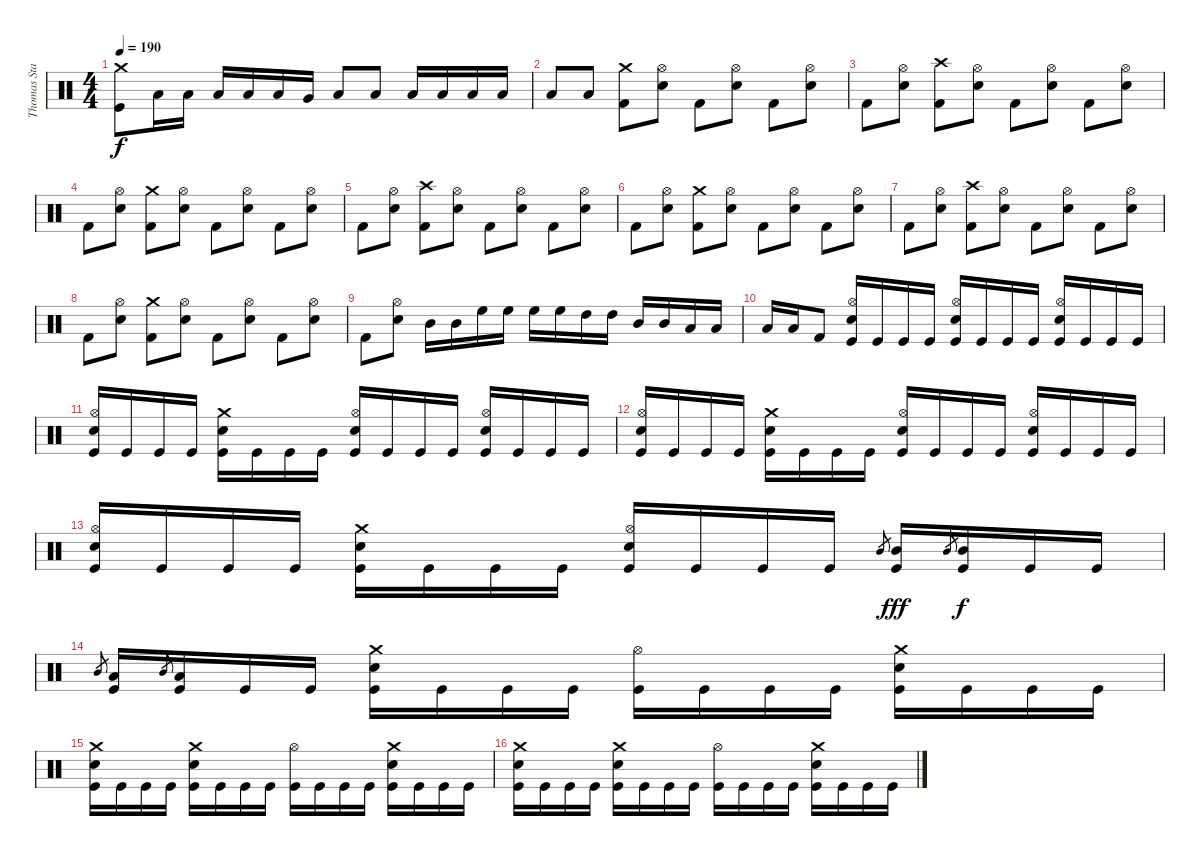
\track ("Thomas Stauch" "Thomas Sta") {instrument percussion}
\staff {score}
\articulation defaults
\ts (4 4)
\tempo 190
\clef neutral
\ks c
("Crash medium (hit)" "Kick (hit)").8{dy f} "Low Tom (hit)".16 "Low Tom (hit)".16 "Low Tom (hit)".16 "Low Tom (hit)".16 "Low Tom (hit)".16 "Very Low Tom (hit)".16 "Low Tom (hit)".8 "Low Tom (hit)".8 "Low Tom (hit)".16 "Low Tom (hit)".16 "Low Tom (hit)".16 "Low Tom (hit)".16 |
"Low Tom (hit)".8 "Low Tom (hit)".8 ("Crash medium (hit)" "Kick (hit) 2").8 ("Hi-Hat (open)" "Electric Snare (hit)").8 "Kick (hit) 2".8 ("Hi-Hat (open)" "Electric Snare (hit)").8 "Kick (hit) 2".8 ("Hi-Hat (open)" "Electric Snare (hit)").8 |
"Kick (hit) 2".8 ("Hi-Hat (open)" "Electric Snare (hit)").8 ("Crash high (hit)" "Kick (hit) 2").8 ("Hi-Hat (open)" "Electric Snare (hit)").8 "Kick (hit) 2".8 ("Hi-Hat (open)" "Electric Snare (hit)").8 "Kick (hit) 2".8 ("Hi-Hat (open)" "Electric Snare (hit)").8 |
"Kick (hit) 2".8 ("Hi-Hat (open)" "Electric Snare (hit)").8 ("Crash medium (hit)" "Kick (hit) 2").8 ("Hi-Hat (open)" "Electric Snare (hit)").8 "Kick (hit) 2".8 ("Hi-Hat (open)" "Electric Snare (hit)").8 "Kick (hit) 2".8 ("Hi-Hat (open)" "Electric Snare (hit)").8 |
"Kick (hit) 2".8 ("Hi-Hat (open)" "Electric Snare (hit)").8 ("Crash high (hit)" "Kick (hit) 2").8 ("Hi-Hat (open)" "Electric Snare (hit)").8 "Kick (hit) 2".8 ("Hi-Hat (open)" "Electric Snare (hit)").8 "Kick (hit) 2".8 ("Hi-Hat (open)" "Electric Snare (hit)").8 |
"Kick (hit) 2".8 ("Hi-Hat (open)" "Electric Snare (hit)").8 ("Crash medium (hit)" "Kick (hit) 2").8 ("Hi-Hat (open)" "Electric Snare (hit)").8 "Kick (hit) 2".8 ("Hi-Hat (open)" "Electric Snare (hit)").8 "Kick (hit) 2".8 ("Hi-Hat (open)" "Electric Snare (hit)").8 |
"Kick (hit) 2".8 ("Hi-Hat (open)" "Electric Snare (hit)").8 ("Crash high (hit)" "Kick (hit) 2").8 ("Hi-Hat (open)" "Electric Snare (hit)").8 "Kick (hit) 2".8 ("Hi-Hat (open)" "Electric Snare (hit)").8 "Kick (hit) 2".8 ("Hi-Hat (open)" "Electric Snare (hit)").8 |
"Kick (hit) 2".8 ("Hi-Hat (open)" "Electric Snare (hit)").8 ("Crash medium (hit)" "Kick (hit) 2").8 ("Hi-Hat (open)" "Electric Snare (hit)").8 "Kick (hit) 2".8 ("Hi-Hat (open)" "Electric Snare (hit)").8 "Kick (hit) 2".8 ("Hi-Hat (open)" "Electric Snare (hit)").8 |
"Kick (hit) 2".8 ("Hi-Hat (open)" "Electric Snare (hit)").8 "Mid Tom (hit)".16 "Mid Tom (hit)".16 "High Floor Tom (hit)".16 "High Floor Tom (hit)".16 "High Floor Tom (hit)".16 "High Floor Tom (hit)".16 "High Tom (hit)".16 "High Tom (hit)".16 "Mid Tom (hit)".16 "Mid Tom (hit)".16 "Low Tom (hit)".16 "Low Tom (hit)".16 |
"Low Tom (hit)".16 "Low Tom (hit)".16 "Kick (hit) 2".8 ("Hi-Hat (open)" "Electric Snare (hit)" "Kick (hit)").16 "Kick (hit)".16 "Kick (hit)".16 "Kick (hit)".16 ("Hi-Hat (open)" "Electric Snare (hit)" "Kick (hit)").16 "Kick (hit)".16 "Kick (hit)".16 "Kick (hit)".16 ("Hi-Hat (open)" "Electric Snare (hit)" "Kick (hit)").16 "Kick (hit)".16 "Kick (hit)".16 "Kick (hit)".16 |
("Hi-Hat (open)" "Electric Snare (hit)" "Kick (hit)").16 "Kick (hit)".16 "Kick (hit)".16 "Kick (hit)".16 ("Crash medium (hit)" "Electric Snare (hit)" "Kick (hit)").16 "Kick (hit)".16 "Kick (hit)".16 "Kick (hit)".16 ("Hi-Hat (open)" "Electric Snare (hit)" "Kick (hit)").16 "Kick (hit)".16 "Kick (hit)".16 "Kick (hit)".16 ("Hi-Hat (open)" "Electric Snare (hit)" "Kick (hit)").16 "Kick (hit)".16 "Kick (hit)".16 "Kick (hit)".16 |
("Hi-Hat (open)" "Electric Snare (hit)" "Kick (hit)").16 "Kick (hit)".16 "Kick (hit)".16 "Kick (hit)".16 ("Crash medium (hit)" "Electric Snare (hit)" "Kick (hit)").16 "Kick (hit)".16 "Kick (hit)".16 "Kick (hit)".16 ("Hi-Hat (open)" "Electric Snare (hit)" "Kick (hit)").16 "Kick (hit)".16 "Kick (hit)".16 "Kick (hit)".16 ("Hi-Hat (open)" "Electric Snare (hit)" "Kick (hit)").16 "Kick (hit)".16 "Kick (hit)".16 "Kick (hit)".16 |
("Hi-Hat (open)" "Electric Snare (hit)" "Kick (hit)").16 "Kick (hit)".16 "Kick (hit)".16 "Kick (hit)".16 ("Crash medium (hit)" "Electric Snare (hit)" "Kick (hit)").16 "Kick (hit)".16 "Kick (hit)".16 "Kick (hit)".16 ("Hi-Hat (open)" "Electric Snare (hit)" "Kick (hit)").16 "Kick (hit)".16 "Kick (hit)".16 "Kick (hit)".16 "Mid Tom (hit)".8{gr} ("Mid Tom (hit)" "Kick (hit)").16{dy fff} "Mid Tom (hit)".8{gr} ("Mid Tom (hit)" "Kick (hit)").16{dy f} "Kick (hit)".16 "Kick (hit)".16 |
"Mid Tom (hit)".8{gr} ("Low Tom (hit)" "Kick (hit)").16 "Mid Tom (hit)".8{gr} ("Low Tom (hit)" "Kick (hit)").16 "Kick (hit)".16 "Kick (hit)".16 ("Crash medium (hit)" "Electric Snare (hit)" "Kick (hit)").16 "Kick (hit)".16 "Kick (hit)".16 "Kick (hit)".16 ("Hi-Hat (open)" "Kick (hit)").16 "Kick (hit)".16 "Kick (hit)".16 "Kick (hit)".16 ("Crash medium (hit)" "Electric Snare (hit)" "Kick (hit)").16 "Kick (hit)".16 "Kick (hit)".16 "Kick (hit)".16 |
("Crash medium (hit)" "Electric Snare (hit)" "Kick (hit)").16 "Kick (hit)".16 "Kick (hit)".16 "Kick (hit)".16 ("Crash medium (hit)" "Electric Snare (hit)" "Kick (hit)").16 "Kick (hit)".16 "Kick (hit)".16 "Kick (hit)".16 ("Hi-Hat (open)" "Kick (hit)").16 "Kick (hit)".16 "Kick (hit)".16 "Kick (hit)".16 ("Crash medium (hit)" "Electric Snare (hit)" "Kick (hit)").16 "Kick (hit)".16 "Kick (hit)".16 "Kick (hit)".16 |
("Crash medium (hit)" "Electric Snare (hit)" "Kick (hit)").16 "Kick (hit)".16 "Kick (hit)".16 "Kick (hit)".16 ("Crash medium (hit)" "Electric Snare (hit)" "Kick (hit)").16 "Kick (hit)".16 "Kick (hit)".16 "Kick (hit)".16 ("Hi-Hat (open)" "Kick (hit)").16 "Kick (hit)".16 "Kick (hit)".16 "Kick (hit)".16 ("Crash medium (hit)" "Electric Snare (hit)" "Kick (hit)").16 "Kick (hit)".16 "Kick (hit)".16 "Kick (hit)".16
